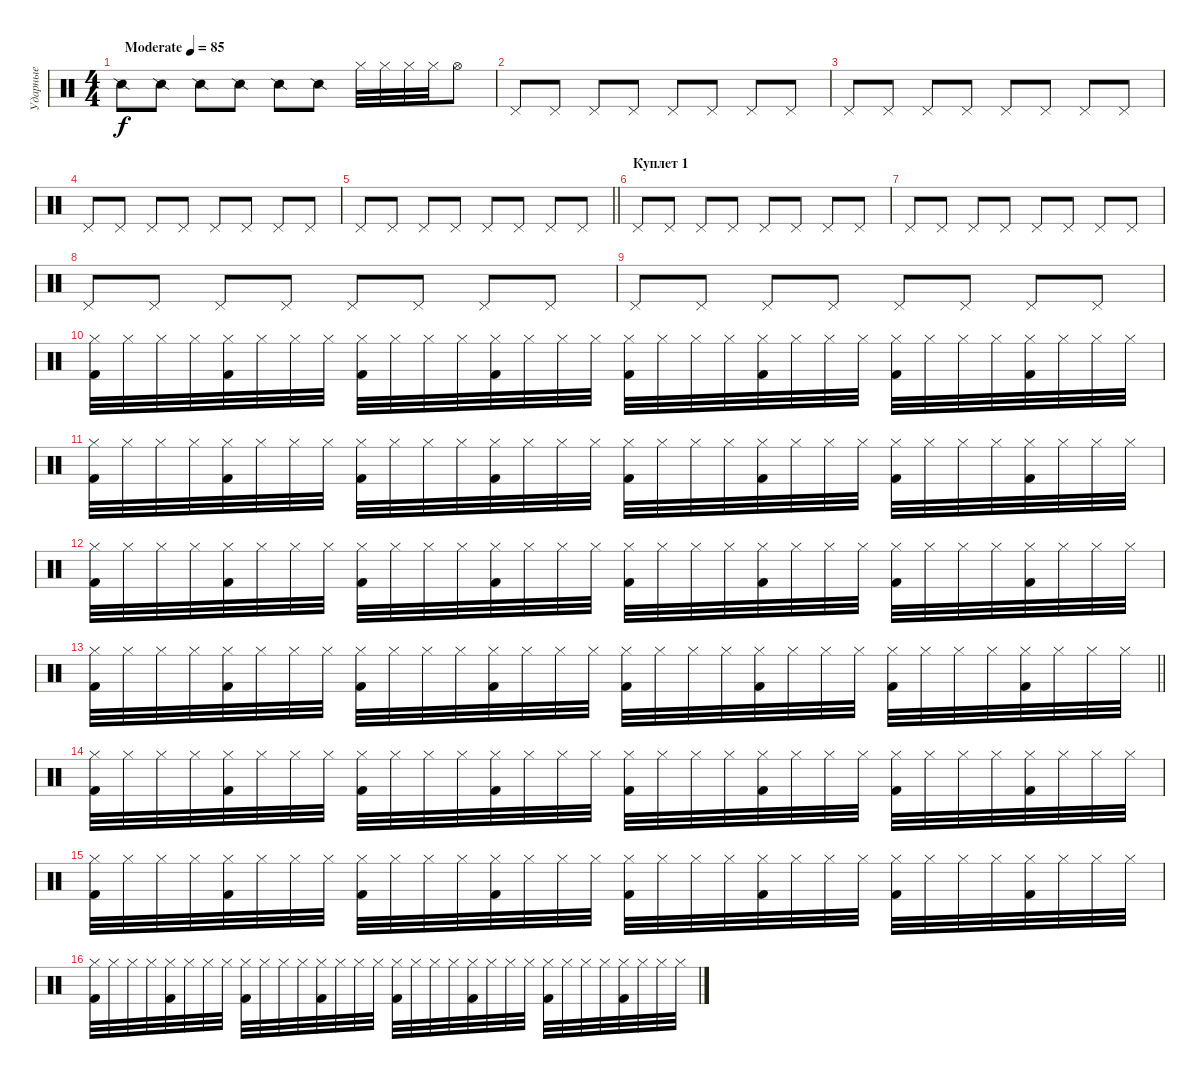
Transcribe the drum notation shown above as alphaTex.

\track ("Ударные" "Ударные") {instrument percussion}
\staff {score}
\articulation defaults
\ts (4 4)
\tempo (85 "Moderate")
\clef neutral
\ks c "Snare (side stick) 2".8{dy f} "Snare (side stick) 2".8 "Snare (side stick) 2".8 "Snare (side stick) 2".8 "Snare (side stick) 2".8 "Snare (side stick) 2".8 "Hi-Hat (closed)".32 "Hi-Hat (closed)".32 "Hi-Hat (closed)".32 "Hi-Hat (closed)".32 "Hi-Hat (open)".8
|
"Pedal Hi-Hat (hit)".8 "Pedal Hi-Hat (hit)".8 "Pedal Hi-Hat (hit)".8 "Pedal Hi-Hat (hit)".8 "Pedal Hi-Hat (hit)".8 "Pedal Hi-Hat (hit)".8 "Pedal Hi-Hat (hit)".8 "Pedal Hi-Hat (hit)".8 |
"Pedal Hi-Hat (hit)".8 "Pedal Hi-Hat (hit)".8 "Pedal Hi-Hat (hit)".8 "Pedal Hi-Hat (hit)".8 "Pedal Hi-Hat (hit)".8 "Pedal Hi-Hat (hit)".8 "Pedal Hi-Hat (hit)".8 "Pedal Hi-Hat (hit)".8 |
"Pedal Hi-Hat (hit)".8 "Pedal Hi-Hat (hit)".8 "Pedal Hi-Hat (hit)".8 "Pedal Hi-Hat (hit)".8 "Pedal Hi-Hat (hit)".8 "Pedal Hi-Hat (hit)".8 "Pedal Hi-Hat (hit)".8 "Pedal Hi-Hat (hit)".8 |
\barLineRight lightlight "Pedal Hi-Hat (hit)".8 "Pedal Hi-Hat (hit)".8 "Pedal Hi-Hat (hit)".8 "Pedal Hi-Hat (hit)".8 "Pedal Hi-Hat (hit)".8 "Pedal Hi-Hat (hit)".8 "Pedal Hi-Hat (hit)".8 "Pedal Hi-Hat (hit)".8
|
\section ("" "Куплет 1")
"Pedal Hi-Hat (hit)".8 "Pedal Hi-Hat (hit)".8 "Pedal Hi-Hat (hit)".8 "Pedal Hi-Hat (hit)".8 "Pedal Hi-Hat (hit)".8 "Pedal Hi-Hat (hit)".8 "Pedal Hi-Hat (hit)".8 "Pedal Hi-Hat (hit)".8 |
"Pedal Hi-Hat (hit)".8 "Pedal Hi-Hat (hit)".8 "Pedal Hi-Hat (hit)".8 "Pedal Hi-Hat (hit)".8 "Pedal Hi-Hat (hit)".8 "Pedal Hi-Hat (hit)".8 "Pedal Hi-Hat (hit)".8 "Pedal Hi-Hat (hit)".8 |
"Pedal Hi-Hat (hit)".8 "Pedal Hi-Hat (hit)".8 "Pedal Hi-Hat (hit)".8 "Pedal Hi-Hat (hit)".8 "Pedal Hi-Hat (hit)".8 "Pedal Hi-Hat (hit)".8 "Pedal Hi-Hat (hit)".8 "Pedal Hi-Hat (hit)".8 |
"Pedal Hi-Hat (hit)".8 "Pedal Hi-Hat (hit)".8 "Pedal Hi-Hat (hit)".8 "Pedal Hi-Hat (hit)".8 "Pedal Hi-Hat (hit)".8 "Pedal Hi-Hat (hit)".8 "Pedal Hi-Hat (hit)".8 "Pedal Hi-Hat (hit)".8 |
("Hi-Hat (closed)" "Kick (hit) 2").32 "Hi-Hat (closed)".32 "Hi-Hat (closed)".32 "Hi-Hat (closed)".32 ("Hi-Hat (closed)" "Kick (hit) 2").32 "Hi-Hat (closed)".32 "Hi-Hat (closed)".32 "Hi-Hat (closed)".32 ("Hi-Hat (closed)" "Kick (hit) 2").32 "Hi-Hat (closed)".32 "Hi-Hat (closed)".32 "Hi-Hat (closed)".32 ("Hi-Hat (closed)" "Kick (hit) 2").32 "Hi-Hat (closed)".32 "Hi-Hat (closed)".32 "Hi-Hat (closed)".32 ("Hi-Hat (closed)" "Kick (hit) 2").32 "Hi-Hat (closed)".32 "Hi-Hat (closed)".32 "Hi-Hat (closed)".32 ("Hi-Hat (closed)" "Kick (hit) 2").32 "Hi-Hat (closed)".32 "Hi-Hat (closed)".32 "Hi-Hat (closed)".32 ("Hi-Hat (closed)" "Kick (hit) 2").32 "Hi-Hat (closed)".32 "Hi-Hat (closed)".32 "Hi-Hat (closed)".32 ("Hi-Hat (closed)" "Kick (hit) 2").32 "Hi-Hat (closed)".32 "Hi-Hat (closed)".32 "Hi-Hat (closed)".32 |
("Hi-Hat (closed)" "Kick (hit) 2").32 "Hi-Hat (closed)".32 "Hi-Hat (closed)".32 "Hi-Hat (closed)".32 ("Hi-Hat (closed)" "Kick (hit) 2").32 "Hi-Hat (closed)".32 "Hi-Hat (closed)".32 "Hi-Hat (closed)".32 ("Hi-Hat (closed)" "Kick (hit) 2").32 "Hi-Hat (closed)".32 "Hi-Hat (closed)".32 "Hi-Hat (closed)".32 ("Hi-Hat (closed)" "Kick (hit) 2").32 "Hi-Hat (closed)".32 "Hi-Hat (closed)".32 "Hi-Hat (closed)".32 ("Hi-Hat (closed)" "Kick (hit) 2").32 "Hi-Hat (closed)".32 "Hi-Hat (closed)".32 "Hi-Hat (closed)".32 ("Hi-Hat (closed)" "Kick (hit) 2").32 "Hi-Hat (closed)".32 "Hi-Hat (closed)".32 "Hi-Hat (closed)".32 ("Hi-Hat (closed)" "Kick (hit) 2").32 "Hi-Hat (closed)".32 "Hi-Hat (closed)".32 "Hi-Hat (closed)".32 ("Hi-Hat (closed)" "Kick (hit) 2").32 "Hi-Hat (closed)".32 "Hi-Hat (closed)".32 "Hi-Hat (closed)".32 |
("Hi-Hat (closed)" "Kick (hit) 2").32 "Hi-Hat (closed)".32 "Hi-Hat (closed)".32 "Hi-Hat (closed)".32 ("Hi-Hat (closed)" "Kick (hit) 2").32 "Hi-Hat (closed)".32 "Hi-Hat (closed)".32 "Hi-Hat (closed)".32 ("Hi-Hat (closed)" "Kick (hit) 2").32 "Hi-Hat (closed)".32 "Hi-Hat (closed)".32 "Hi-Hat (closed)".32 ("Hi-Hat (closed)" "Kick (hit) 2").32 "Hi-Hat (closed)".32 "Hi-Hat (closed)".32 "Hi-Hat (closed)".32 ("Hi-Hat (closed)" "Kick (hit) 2").32 "Hi-Hat (closed)".32 "Hi-Hat (closed)".32 "Hi-Hat (closed)".32 ("Hi-Hat (closed)" "Kick (hit) 2").32 "Hi-Hat (closed)".32 "Hi-Hat (closed)".32 "Hi-Hat (closed)".32 ("Hi-Hat (closed)" "Kick (hit) 2").32 "Hi-Hat (closed)".32 "Hi-Hat (closed)".32 "Hi-Hat (closed)".32 ("Hi-Hat (closed)" "Kick (hit) 2").32 "Hi-Hat (closed)".32 "Hi-Hat (closed)".32 "Hi-Hat (closed)".32 |
\barLineRight lightlight
("Hi-Hat (closed)" "Kick (hit) 2").32 "Hi-Hat (closed)".32 "Hi-Hat (closed)".32 "Hi-Hat (closed)".32 ("Hi-Hat (closed)" "Kick (hit) 2").32 "Hi-Hat (closed)".32 "Hi-Hat (closed)".32 "Hi-Hat (closed)".32 ("Hi-Hat (closed)" "Kick (hit) 2").32 "Hi-Hat (closed)".32 "Hi-Hat (closed)".32 "Hi-Hat (closed)".32 ("Hi-Hat (closed)" "Kick (hit) 2").32 "Hi-Hat (closed)".32 "Hi-Hat (closed)".32 "Hi-Hat (closed)".32 ("Hi-Hat (closed)" "Kick (hit) 2").32 "Hi-Hat (closed)".32 "Hi-Hat (closed)".32 "Hi-Hat (closed)".32 ("Hi-Hat (closed)" "Kick (hit) 2").32 "Hi-Hat (closed)".32 "Hi-Hat (closed)".32 "Hi-Hat (closed)".32 ("Hi-Hat (closed)" "Kick (hit) 2").32 "Hi-Hat (closed)".32 "Hi-Hat (closed)".32 "Hi-Hat (closed)".32 ("Hi-Hat (closed)" "Kick (hit) 2").32 "Hi-Hat (closed)".32 "Hi-Hat (closed)".32 "Hi-Hat (closed)".32 |
("Hi-Hat (closed)" "Kick (hit) 2").32 "Hi-Hat (closed)".32 "Hi-Hat (closed)".32 "Hi-Hat (closed)".32 ("Hi-Hat (closed)" "Kick (hit) 2").32 "Hi-Hat (closed)".32 "Hi-Hat (closed)".32 "Hi-Hat (closed)".32 ("Hi-Hat (closed)" "Kick (hit) 2").32 "Hi-Hat (closed)".32 "Hi-Hat (closed)".32 "Hi-Hat (closed)".32 ("Hi-Hat (closed)" "Kick (hit) 2").32 "Hi-Hat (closed)".32 "Hi-Hat (closed)".32 "Hi-Hat (closed)".32 ("Hi-Hat (closed)" "Kick (hit) 2").32 "Hi-Hat (closed)".32 "Hi-Hat (closed)".32 "Hi-Hat (closed)".32 ("Hi-Hat (closed)" "Kick (hit) 2").32 "Hi-Hat (closed)".32 "Hi-Hat (closed)".32 "Hi-Hat (closed)".32 ("Hi-Hat (closed)" "Kick (hit) 2").32 "Hi-Hat (closed)".32 "Hi-Hat (closed)".32 "Hi-Hat (closed)".32 ("Hi-Hat (closed)" "Kick (hit) 2").32 "Hi-Hat (closed)".32 "Hi-Hat (closed)".32 "Hi-Hat (closed)".32 |
("Hi-Hat (closed)" "Kick (hit) 2").32 "Hi-Hat (closed)".32 "Hi-Hat (closed)".32 "Hi-Hat (closed)".32 ("Hi-Hat (closed)" "Kick (hit) 2").32 "Hi-Hat (closed)".32 "Hi-Hat (closed)".32 "Hi-Hat (closed)".32 ("Hi-Hat (closed)" "Kick (hit) 2").32 "Hi-Hat (closed)".32 "Hi-Hat (closed)".32 "Hi-Hat (closed)".32 ("Hi-Hat (closed)" "Kick (hit) 2").32 "Hi-Hat (closed)".32 "Hi-Hat (closed)".32 "Hi-Hat (closed)".32 ("Hi-Hat (closed)" "Kick (hit) 2").32 "Hi-Hat (closed)".32 "Hi-Hat (closed)".32 "Hi-Hat (closed)".32 ("Hi-Hat (closed)" "Kick (hit) 2").32 "Hi-Hat (closed)".32 "Hi-Hat (closed)".32 "Hi-Hat (closed)".32 ("Hi-Hat (closed)" "Kick (hit) 2").32 "Hi-Hat (closed)".32 "Hi-Hat (closed)".32 "Hi-Hat (closed)".32 ("Hi-Hat (closed)" "Kick (hit) 2").32 "Hi-Hat (closed)".32 "Hi-Hat (closed)".32 "Hi-Hat (closed)".32 |
("Hi-Hat (closed)" "Kick (hit) 2").32 "Hi-Hat (closed)".32 "Hi-Hat (closed)".32 "Hi-Hat (closed)".32 ("Hi-Hat (closed)" "Kick (hit) 2").32 "Hi-Hat (closed)".32 "Hi-Hat (closed)".32 "Hi-Hat (closed)".32 ("Hi-Hat (closed)" "Kick (hit) 2").32 "Hi-Hat (closed)".32 "Hi-Hat (closed)".32 "Hi-Hat (closed)".32 ("Hi-Hat (closed)" "Kick (hit) 2").32 "Hi-Hat (closed)".32 "Hi-Hat (closed)".32 "Hi-Hat (closed)".32 ("Hi-Hat (closed)" "Kick (hit) 2").32 "Hi-Hat (closed)".32 "Hi-Hat (closed)".32 "Hi-Hat (closed)".32 ("Hi-Hat (closed)" "Kick (hit) 2").32 "Hi-Hat (closed)".32 "Hi-Hat (closed)".32 "Hi-Hat (closed)".32 ("Hi-Hat (closed)" "Kick (hit) 2").32 "Hi-Hat (closed)".32 "Hi-Hat (closed)".32 "Hi-Hat (closed)".32 ("Hi-Hat (closed)" "Kick (hit) 2").32 "Hi-Hat (closed)".32 "Hi-Hat (closed)".32 "Hi-Hat (closed)".32
